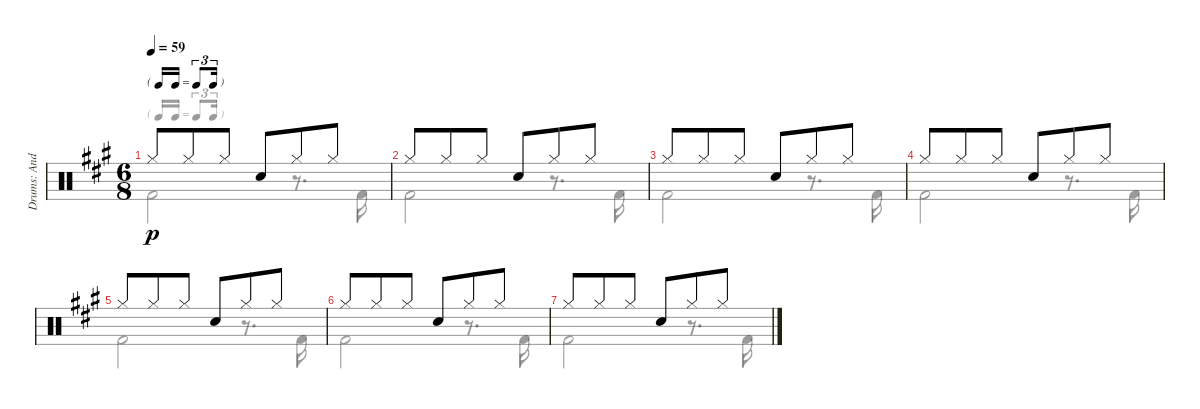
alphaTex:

\track ("Drums: Andy Newmark" "Drums: And") {instrument percussion}
\staff {score}
\articulation defaults
\voice
\ts (6 8)
\tf triplet16th
\tempo 59
\clef neutral
\ks a "Hi-Hat (closed)".8{dy p} "Hi-Hat (closed)".8 "Hi-Hat (closed)".8 "Snare (hit) 2".8 "Hi-Hat (closed)".8 "Hi-Hat (closed)".8
|
"Hi-Hat (closed)".8 "Hi-Hat (closed)".8 "Hi-Hat (closed)".8 "Snare (hit) 2".8 "Hi-Hat (closed)".8 "Hi-Hat (closed)".8{volume 0} |
"Hi-Hat (closed)".8 "Hi-Hat (closed)".8 "Hi-Hat (closed)".8 "Snare (hit) 2".8 "Hi-Hat (closed)".8 "Hi-Hat (closed)".8 |
"Hi-Hat (closed)".8 "Hi-Hat (closed)".8 "Hi-Hat (closed)".8 "Snare (hit) 2".8 "Hi-Hat (closed)".8 "Hi-Hat (closed)".8 |
"Hi-Hat (closed)".8 "Hi-Hat (closed)".8 "Hi-Hat (closed)".8 "Snare (hit) 2".8 "Hi-Hat (closed)".8 "Hi-Hat (closed)".8 |
"Hi-Hat (closed)".8 "Hi-Hat (closed)".8 "Hi-Hat (closed)".8 "Snare (hit) 2".8 "Hi-Hat (closed)".8 "Hi-Hat (closed)".8 |
"Hi-Hat (closed)".8 "Hi-Hat (closed)".8 "Hi-Hat (closed)".8 "Snare (hit) 2".8 "Hi-Hat (closed)".8 "Hi-Hat (closed)".8
\voice
\clef neutral
\ottava regular
\simile none
\ks a "Kick (hit) 2".2{dy p}
r.8{d} "Kick (hit) 2".16 |
"Kick (hit) 2".2 r.8{d} "Kick (hit) 2".16 |
"Kick (hit) 2".2 r.8{d} "Kick (hit) 2".16 |
"Kick (hit) 2".2 r.8{d} "Kick (hit) 2".16 |
"Kick (hit) 2".2 r.8{d} "Kick (hit) 2".16 |
"Kick (hit) 2".2 r.8{d} "Kick (hit) 2".16 |
"Kick (hit) 2".2 r.8{d} "Kick (hit) 2".16
